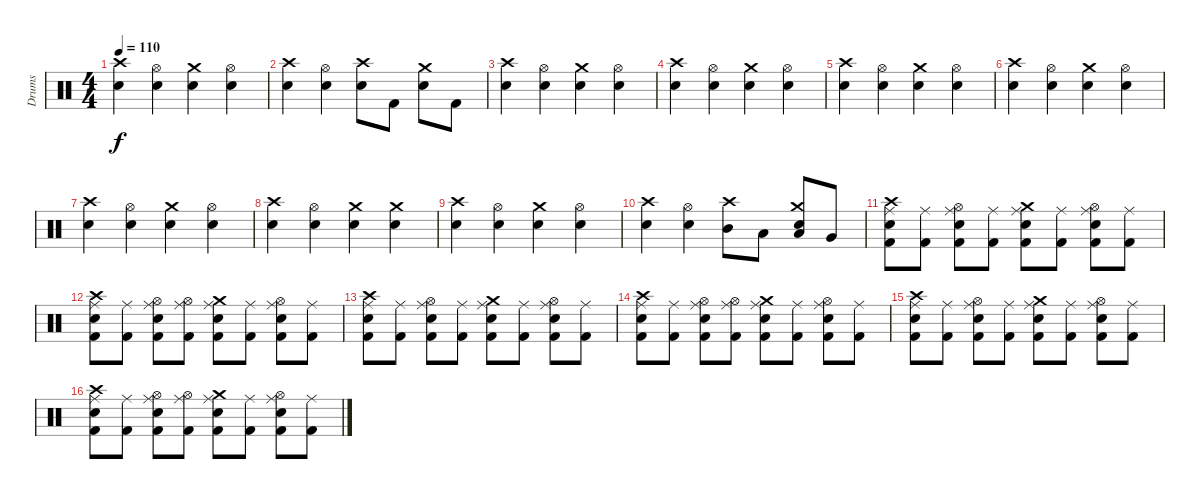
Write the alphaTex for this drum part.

\track ("Drums" "Drums") {instrument percussion}
\staff {score}
\articulation defaults
\ts (4 4)
\tempo 110
\clef neutral
\ks c
("Crash high (hit)" "Snare (hit) 2").4{dy f} ("Hi-Hat (open)" "Snare (hit) 2").4 ("Crash medium (hit)" "Snare (hit) 2").4 ("Hi-Hat (open)" "Snare (hit) 2").4 |
("Crash high (hit)" "Snare (hit) 2").4 ("Hi-Hat (open)" "Snare (hit) 2").4 ("Crash high (hit)" "Snare (hit) 2").8 "Kick (hit) 2".8 ("Crash medium (hit)" "Snare (hit) 2").8 "Kick (hit) 2".8 |
("Crash high (hit)" "Snare (hit) 2").4 ("Hi-Hat (open)" "Snare (hit) 2").4 ("Crash medium (hit)" "Snare (hit) 2").4 ("Hi-Hat (open)" "Snare (hit) 2").4 |
("Crash high (hit)" "Snare (hit) 2").4 ("Hi-Hat (open)" "Snare (hit) 2").4 ("Crash medium (hit)" "Snare (hit) 2").4 ("Hi-Hat (open)" "Snare (hit) 2").4 |
("Crash high (hit)" "Snare (hit) 2").4 ("Hi-Hat (open)" "Snare (hit) 2").4 ("Crash medium (hit)" "Snare (hit) 2").4 ("Hi-Hat (open)" "Snare (hit) 2").4 |
("Crash high (hit)" "Snare (hit) 2").4 ("Hi-Hat (open)" "Snare (hit) 2").4 ("Crash medium (hit)" "Snare (hit) 2").4 ("Hi-Hat (open)" "Snare (hit) 2").4 |
("Crash high (hit)" "Snare (hit) 2").4 ("Hi-Hat (open)" "Snare (hit) 2").4 ("Crash medium (hit)" "Snare (hit) 2").4 ("Hi-Hat (open)" "Snare (hit) 2").4 |
("Crash high (hit)" "Snare (hit) 2").4 ("Hi-Hat (open)" "Snare (hit) 2").4 ("Crash medium (hit)" "Snare (hit) 2").4 ("Crash medium (hit)" "Snare (hit) 2").4 |
("Crash high (hit)" "Snare (hit) 2").4 ("Hi-Hat (open)" "Snare (hit) 2").4 ("Crash medium (hit)" "Snare (hit) 2").4 ("Hi-Hat (open)" "Snare (hit) 2").4 |
("Crash high (hit)" "Snare (hit) 2").4 ("Hi-Hat (open)" "Snare (hit) 2").4 ("Crash high (hit)" "Mid Tom (hit)").8 "Low Tom (hit)".8 ("Crash medium (hit)" "Low Tom (hit)" "Snare (hit) 2").8 "Very Low Tom (hit)".8 |
("Kick (hit) 2" "Crash high (hit)" "Ride (middle)" "Snare (hit) 2").8 ("Kick (hit) 2" "Ride (middle)").8 ("Kick (hit) 2" "Hi-Hat (open)" "Ride (middle)" "Snare (hit) 2").8 ("Kick (hit) 2" "Ride (middle)").8 ("Kick (hit) 2" "Crash medium (hit)" "Ride (middle)" "Snare (hit) 2").8 ("Kick (hit) 2" "Ride (middle)").8 ("Kick (hit) 2" "Hi-Hat (open)" "Ride (middle)" "Snare (hit) 2").8 ("Kick (hit) 2" "Ride (middle)").8 |
("Kick (hit) 2" "Crash high (hit)" "Ride (middle)" "Snare (hit) 2").8 ("Kick (hit) 2" "Ride (middle)").8 ("Kick (hit) 2" "Hi-Hat (open)" "Ride (middle)" "Snare (hit) 2").8 ("Kick (hit) 2" "Hi-Hat (open)" "Ride (middle)").8 ("Kick (hit) 2" "Crash medium (hit)" "Ride (middle)" "Snare (hit) 2").8 ("Kick (hit) 2" "Ride (middle)").8 ("Kick (hit) 2" "Hi-Hat (open)" "Ride (middle)" "Snare (hit) 2").8 ("Kick (hit) 2" "Ride (middle)").8 |
("Kick (hit) 2" "Crash high (hit)" "Ride (middle)" "Snare (hit) 2").8 ("Kick (hit) 2" "Ride (middle)").8 ("Kick (hit) 2" "Hi-Hat (open)" "Ride (middle)" "Snare (hit) 2").8 ("Kick (hit) 2" "Ride (middle)").8 ("Kick (hit) 2" "Crash medium (hit)" "Ride (middle)" "Snare (hit) 2").8 ("Kick (hit) 2" "Ride (middle)").8 ("Kick (hit) 2" "Hi-Hat (open)" "Ride (middle)" "Snare (hit) 2").8 ("Kick (hit) 2" "Ride (middle)").8 |
("Kick (hit) 2" "Crash high (hit)" "Ride (middle)" "Snare (hit) 2").8 ("Kick (hit) 2" "Ride (middle)").8 ("Kick (hit) 2" "Hi-Hat (open)" "Ride (middle)" "Snare (hit) 2").8 ("Kick (hit) 2" "Hi-Hat (open)" "Ride (middle)").8 ("Kick (hit) 2" "Crash medium (hit)" "Ride (middle)" "Snare (hit) 2").8 ("Kick (hit) 2" "Ride (middle)").8 ("Kick (hit) 2" "Hi-Hat (open)" "Ride (middle)" "Snare (hit) 2").8 ("Kick (hit) 2" "Ride (middle)").8 |
("Kick (hit) 2" "Crash high (hit)" "Ride (middle)" "Snare (hit) 2").8 ("Kick (hit) 2" "Ride (middle)").8 ("Kick (hit) 2" "Hi-Hat (open)" "Ride (middle)" "Snare (hit) 2").8 ("Kick (hit) 2" "Ride (middle)").8 ("Kick (hit) 2" "Crash medium (hit)" "Ride (middle)" "Snare (hit) 2").8 ("Kick (hit) 2" "Ride (middle)").8 ("Kick (hit) 2" "Hi-Hat (open)" "Ride (middle)" "Snare (hit) 2").8 ("Kick (hit) 2" "Ride (middle)").8 |
("Kick (hit) 2" "Crash high (hit)" "Ride (middle)" "Snare (hit) 2").8 ("Kick (hit) 2" "Ride (middle)").8 ("Kick (hit) 2" "Hi-Hat (open)" "Ride (middle)" "Snare (hit) 2").8 ("Kick (hit) 2" "Hi-Hat (open)" "Ride (middle)").8 ("Kick (hit) 2" "Crash medium (hit)" "Ride (middle)" "Snare (hit) 2").8 ("Kick (hit) 2" "Ride (middle)").8 ("Kick (hit) 2" "Hi-Hat (open)" "Ride (middle)" "Snare (hit) 2").8 ("Kick (hit) 2" "Ride (middle)").8
